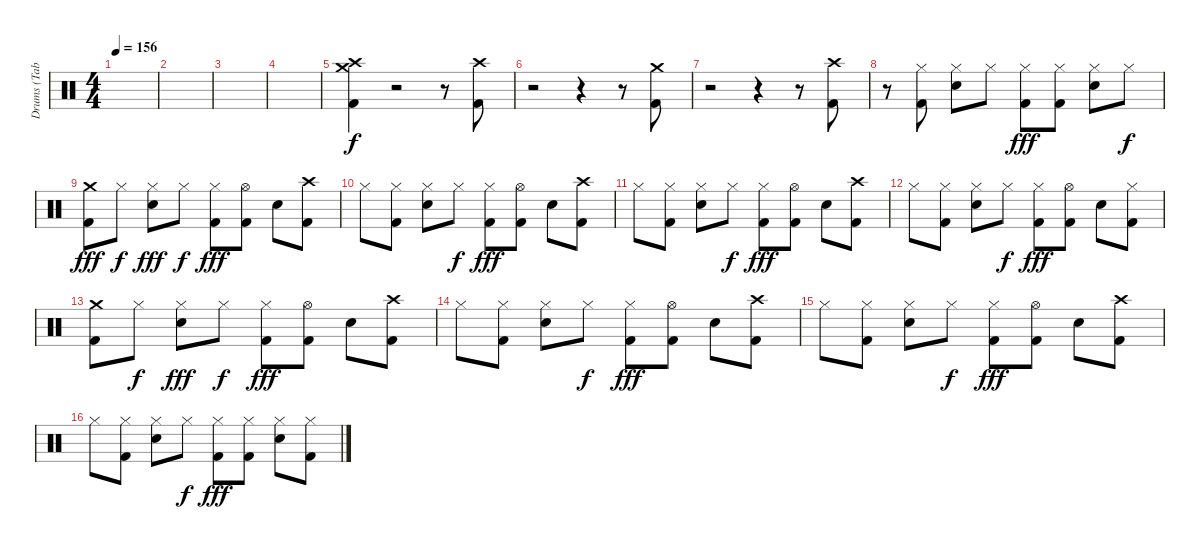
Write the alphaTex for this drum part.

\track ("Drums (Tab By Drumminger)" "Drums (Tab") {instrument percussion}
\staff {score}
\articulation defaults
\ts (4 4)
\tempo 156
\clef neutral
\ks c
|
|
|
|
("Crash medium (hit)" "Crash high (hit)" "Kick (hit) 2").4 r.2 r.8 ("Crash high (hit)" "Kick (hit) 2").8 |
r.2 r.4 r.8 ("Crash medium (hit)" "Kick (hit) 2").8 |
r.2 r.4 r.8 ("Crash high (hit)" "Kick (hit) 2").8 |
r.8 ("Hi-Hat (closed)" "Kick (hit) 2").8 ("Hi-Hat (closed)" "Snare (hit) 2").8 "Hi-Hat (closed)".8{dy f} ("Hi-Hat (closed)" "Kick (hit) 2").8{dy fff} ("Hi-Hat (closed)" "Kick (hit) 2").8 ("Hi-Hat (closed)" "Snare (hit) 2").8 "Hi-Hat (closed)".8{dy f} |
("Crash medium (hit)" "Kick (hit) 2").8{dy fff} "Hi-Hat (closed)".8{dy f} ("Hi-Hat (closed)" "Snare (hit) 2").8{dy fff} "Hi-Hat (closed)".8{dy f} ("Hi-Hat (closed)" "Kick (hit) 2").8{dy fff} ("Hi-Hat (open)" "Kick (hit) 2").8 "Snare (hit) 2".8 ("Crash high (hit)" "Kick (hit) 2").8 |
"Hi-Hat (closed)".8 ("Hi-Hat (closed)" "Kick (hit) 2").8 ("Hi-Hat (closed)" "Snare (hit) 2").8 "Hi-Hat (closed)".8{dy f} ("Hi-Hat (closed)" "Kick (hit) 2").8{dy fff} ("Hi-Hat (open)" "Kick (hit) 2").8 "Snare (hit) 2".8 ("Crash high (hit)" "Kick (hit) 2").8 |
"Hi-Hat (closed)".8 ("Hi-Hat (closed)" "Kick (hit) 2").8 ("Hi-Hat (closed)" "Snare (hit) 2").8 "Hi-Hat (closed)".8{dy f} ("Hi-Hat (closed)" "Kick (hit) 2").8{dy fff} ("Hi-Hat (open)" "Kick (hit) 2").8 "Snare (hit) 2".8 ("Crash high (hit)" "Kick (hit) 2").8 |
"Hi-Hat (closed)".8 ("Hi-Hat (closed)" "Kick (hit) 2").8 ("Hi-Hat (closed)" "Snare (hit) 2").8 "Hi-Hat (closed)".8{dy f} ("Hi-Hat (closed)" "Kick (hit) 2").8{dy fff} ("Hi-Hat (open)" "Kick (hit) 2").8 "Snare (hit) 2".8 ("Hi-Hat (closed)" "Kick (hit) 2").8 |
("Crash medium (hit)" "Kick (hit) 2").8 "Hi-Hat (closed)".8{dy f} ("Hi-Hat (closed)" "Snare (hit) 2").8{dy fff} "Hi-Hat (closed)".8{dy f} ("Hi-Hat (closed)" "Kick (hit) 2").8{dy fff} ("Hi-Hat (open)" "Kick (hit) 2").8 "Snare (hit) 2".8 ("Crash high (hit)" "Kick (hit) 2").8 |
"Hi-Hat (closed)".8 ("Hi-Hat (closed)" "Kick (hit) 2").8 ("Hi-Hat (closed)" "Snare (hit) 2").8 "Hi-Hat (closed)".8{dy f} ("Hi-Hat (closed)" "Kick (hit) 2").8{dy fff} ("Hi-Hat (open)" "Kick (hit) 2").8 "Snare (hit) 2".8 ("Crash high (hit)" "Kick (hit) 2").8 |
"Hi-Hat (closed)".8 ("Hi-Hat (closed)" "Kick (hit) 2").8 ("Hi-Hat (closed)" "Snare (hit) 2").8 "Hi-Hat (closed)".8{dy f} ("Hi-Hat (closed)" "Kick (hit) 2").8{dy fff} ("Hi-Hat (open)" "Kick (hit) 2").8 "Snare (hit) 2".8 ("Crash high (hit)" "Kick (hit) 2").8 |
"Hi-Hat (closed)".8 ("Hi-Hat (closed)" "Kick (hit) 2").8 ("Hi-Hat (closed)" "Snare (hit) 2").8 "Hi-Hat (closed)".8{dy f} ("Hi-Hat (closed)" "Kick (hit) 2").8{dy fff} ("Hi-Hat (closed)" "Kick (hit) 2").8 ("Hi-Hat (closed)" "Snare (hit) 2").8 ("Hi-Hat (closed)" "Kick (hit) 2").8
